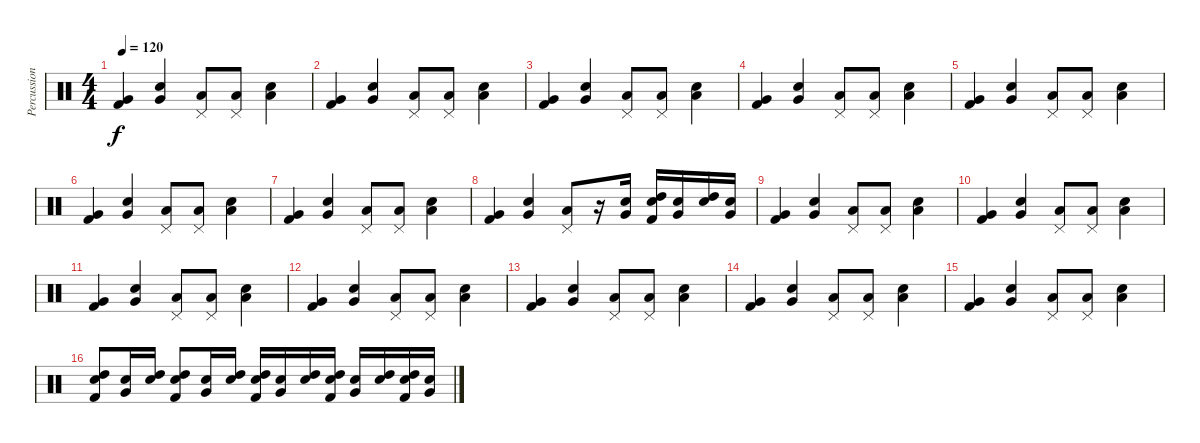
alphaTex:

\track ("Percussion" "Percussion") {instrument percussion}
\staff {score}
\articulation defaults
\ts (4 4)
\tempo 120
\clef neutral
\ks c
("Very Low Tom (hit)" "Kick (hit) 2").4{dy f} ("Very Low Tom (hit)" "Snare (hit) 2").4 ("Pedal Hi-Hat (hit)" "Low Tom (hit)").8 ("Pedal Hi-Hat (hit)" "Low Tom (hit)").8 ("Low Tom (hit)" "Snare (hit) 2").4 |
("Very Low Tom (hit)" "Kick (hit) 2").4 ("Very Low Tom (hit)" "Snare (hit) 2").4 ("Pedal Hi-Hat (hit)" "Low Tom (hit)").8 ("Pedal Hi-Hat (hit)" "Low Tom (hit)").8 ("Low Tom (hit)" "Snare (hit) 2").4 |
("Very Low Tom (hit)" "Kick (hit) 2").4 ("Very Low Tom (hit)" "Snare (hit) 2").4 ("Pedal Hi-Hat (hit)" "Low Tom (hit)").8 ("Pedal Hi-Hat (hit)" "Low Tom (hit)").8 ("Low Tom (hit)" "Snare (hit) 2").4 |
("Very Low Tom (hit)" "Kick (hit) 2").4 ("Very Low Tom (hit)" "Snare (hit) 2").4 ("Pedal Hi-Hat (hit)" "Low Tom (hit)").8 ("Pedal Hi-Hat (hit)" "Low Tom (hit)").8 ("Low Tom (hit)" "Snare (hit) 2").4 |
("Very Low Tom (hit)" "Kick (hit) 2").4 ("Very Low Tom (hit)" "Snare (hit) 2").4 ("Pedal Hi-Hat (hit)" "Low Tom (hit)").8 ("Pedal Hi-Hat (hit)" "Low Tom (hit)").8 ("Low Tom (hit)" "Snare (hit) 2").4 |
("Very Low Tom (hit)" "Kick (hit) 2").4 ("Very Low Tom (hit)" "Snare (hit) 2").4 ("Pedal Hi-Hat (hit)" "Low Tom (hit)").8 ("Pedal Hi-Hat (hit)" "Low Tom (hit)").8 ("Low Tom (hit)" "Snare (hit) 2").4 |
("Very Low Tom (hit)" "Kick (hit) 2").4 ("Very Low Tom (hit)" "Snare (hit) 2").4 ("Pedal Hi-Hat (hit)" "Low Tom (hit)").8 ("Pedal Hi-Hat (hit)" "Low Tom (hit)").8 ("Low Tom (hit)" "Snare (hit) 2").4 |
("Very Low Tom (hit)" "Kick (hit) 2").4 ("Very Low Tom (hit)" "Snare (hit) 2").4 ("Pedal Hi-Hat (hit)" "Low Tom (hit)").8 r.16 ("Very Low Tom (hit)" "Snare (hit) 2").16 ("High Tom (hit)" "Snare (hit) 2" "Kick (hit) 2").16 ("Very Low Tom (hit)" "Snare (hit) 2").16 ("High Tom (hit)" "Snare (hit) 2").16 ("Very Low Tom (hit)" "Snare (hit) 2").16 |
("Very Low Tom (hit)" "Kick (hit) 2").4 ("Very Low Tom (hit)" "Snare (hit) 2").4 ("Pedal Hi-Hat (hit)" "Low Tom (hit)").8 ("Pedal Hi-Hat (hit)" "Low Tom (hit)").8 ("Low Tom (hit)" "Snare (hit) 2").4 |
("Very Low Tom (hit)" "Kick (hit) 2").4 ("Very Low Tom (hit)" "Snare (hit) 2").4 ("Pedal Hi-Hat (hit)" "Low Tom (hit)").8 ("Pedal Hi-Hat (hit)" "Low Tom (hit)").8 ("Low Tom (hit)" "Snare (hit) 2").4 |
("Very Low Tom (hit)" "Kick (hit) 2").4 ("Very Low Tom (hit)" "Snare (hit) 2").4 ("Pedal Hi-Hat (hit)" "Low Tom (hit)").8 ("Pedal Hi-Hat (hit)" "Low Tom (hit)").8 ("Low Tom (hit)" "Snare (hit) 2").4 |
("Very Low Tom (hit)" "Kick (hit) 2").4 ("Very Low Tom (hit)" "Snare (hit) 2").4 ("Pedal Hi-Hat (hit)" "Low Tom (hit)").8 ("Pedal Hi-Hat (hit)" "Low Tom (hit)").8 ("Low Tom (hit)" "Snare (hit) 2").4 |
("Very Low Tom (hit)" "Kick (hit) 2").4 ("Very Low Tom (hit)" "Snare (hit) 2").4 ("Pedal Hi-Hat (hit)" "Low Tom (hit)").8 ("Pedal Hi-Hat (hit)" "Low Tom (hit)").8 ("Low Tom (hit)" "Snare (hit) 2").4 |
("Very Low Tom (hit)" "Kick (hit) 2").4 ("Very Low Tom (hit)" "Snare (hit) 2").4 ("Pedal Hi-Hat (hit)" "Low Tom (hit)").8 ("Pedal Hi-Hat (hit)" "Low Tom (hit)").8 ("Low Tom (hit)" "Snare (hit) 2").4 |
("Very Low Tom (hit)" "Kick (hit) 2").4 ("Very Low Tom (hit)" "Snare (hit) 2").4 ("Pedal Hi-Hat (hit)" "Low Tom (hit)").8 ("Pedal Hi-Hat (hit)" "Low Tom (hit)").8 ("Low Tom (hit)" "Snare (hit) 2").4 |
("High Tom (hit)" "Snare (hit) 2" "Kick (hit) 2").8 ("Very Low Tom (hit)" "Snare (hit) 2").16 ("High Tom (hit)" "Snare (hit) 2").16 ("High Tom (hit)" "Snare (hit) 2" "Kick (hit) 2").8 ("Very Low Tom (hit)" "Snare (hit) 2").16 ("High Tom (hit)" "Snare (hit) 2").16 ("High Tom (hit)" "Snare (hit) 2" "Kick (hit) 2").16 ("Very Low Tom (hit)" "Snare (hit) 2").16 ("High Tom (hit)" "Snare (hit) 2").16 ("High Tom (hit)" "Snare (hit) 2" "Kick (hit) 2").16 ("Very Low Tom (hit)" "Snare (hit) 2").16 ("High Tom (hit)" "Snare (hit) 2").16 ("High Tom (hit)" "Snare (hit) 2" "Kick (hit) 2").16 ("Very Low Tom (hit)" "Snare (hit) 2").16
